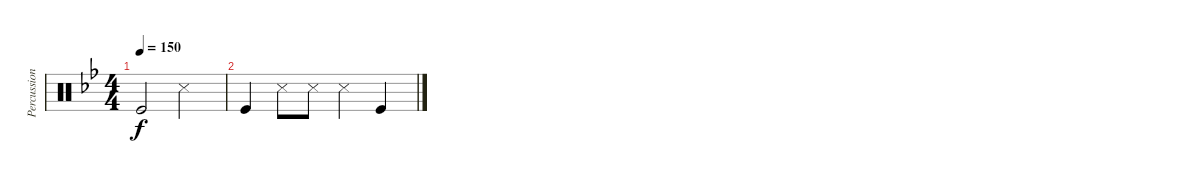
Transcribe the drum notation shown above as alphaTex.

\track ("Percussion" "Percussion") {instrument percussion}
\staff {score}
\articulation defaults
\ts (4 4)
\tempo 150
\clef neutral
\ks gminor "Kick (hit)".2{dy f volume 0} "Snare (side stick) 3".2
|
"Kick (hit)".4 "Snare (side stick) 3".8 "Snare (side stick) 3".8 "Snare (side stick) 3".4 "Kick (hit)".4
